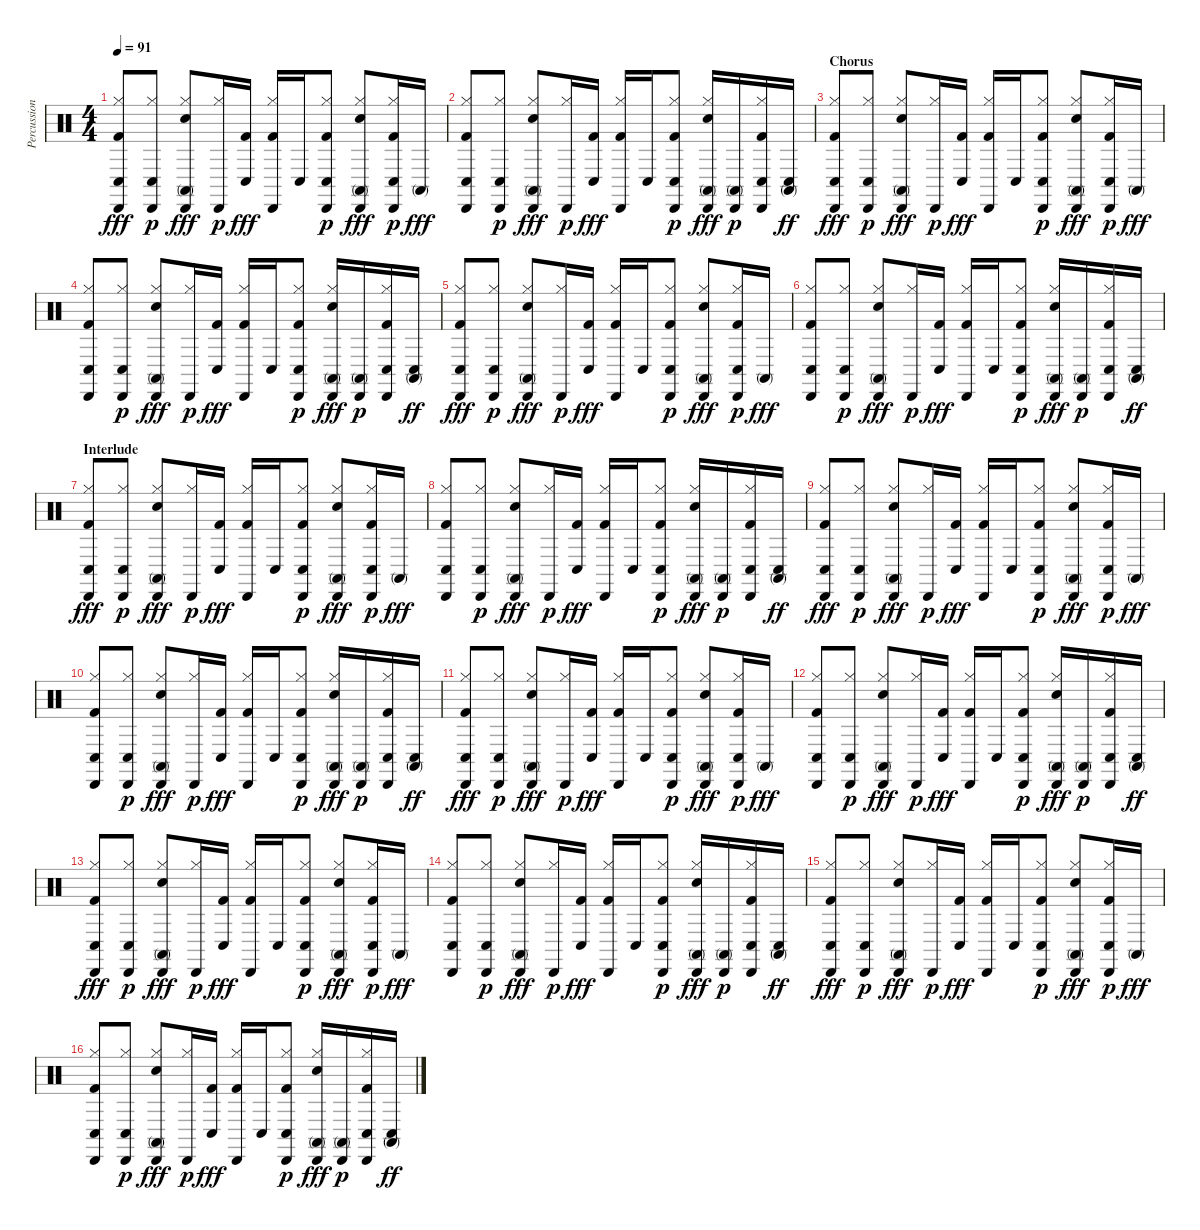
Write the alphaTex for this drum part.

\track ("Percussion" "Percussion") {instrument percussion}
\staff {score}
\articulation defaults
\ts (4 4)
\tempo 91
\clef neutral
\ks c
("Kick (hit) 2" "Hi-Hat (closed)" "Conga low (hit)" "Cabasa (hit)").8{dy fff} ("Hi-Hat (closed)" "Conga low (hit)" "Cabasa (hit)").8{dy p} ("Snare (hit) 2" "Hi-Hat (closed)" "Conga high (mute)" "Cabasa (hit)").8{dy fff} ("Hi-Hat (closed)" "Cabasa (hit)").16{dy p} ("Kick (hit) 2" "Conga low (hit)").16{dy fff} ("Kick (hit) 2" "Hi-Hat (closed)" "Cabasa (hit)").16 "Conga low (hit)".16 ("Kick (hit) 2" "Hi-Hat (closed)" "Conga low (hit)" "Cabasa (hit)").8{dy p} ("Snare (hit) 2" "Hi-Hat (closed)" "Conga high (mute)" "Cabasa (hit)").8{dy fff} ("Kick (hit) 2" "Hi-Hat (closed)" "Conga low (hit)" "Cabasa (hit)").16{dy p} "Conga high (mute)".16{dy fff} |
("Kick (hit) 2" "Hi-Hat (closed)" "Conga low (hit)" "Cabasa (hit)").8 ("Hi-Hat (closed)" "Conga low (hit)" "Cabasa (hit)").8{dy p} ("Snare (hit) 2" "Hi-Hat (closed)" "Conga high (mute)" "Cabasa (hit)").8{dy fff} ("Hi-Hat (closed)" "Cabasa (hit)").16{dy p} ("Kick (hit) 2" "Conga low (hit)").16{dy fff} ("Kick (hit) 2" "Hi-Hat (closed)" "Cabasa (hit)").16 "Conga low (hit)".16 ("Kick (hit) 2" "Hi-Hat (closed)" "Conga low (hit)" "Cabasa (hit)").8{dy p} ("Snare (hit) 2" "Hi-Hat (closed)" "Conga high (mute)" "Cabasa (hit)").16{dy fff} ("Conga high (mute)" "Cabasa (hit)").16{dy p} ("Kick (hit) 2" "Hi-Hat (closed)" "Conga low (hit)" "Cabasa (hit)").16 ("Conga high (mute)" "Conga low (hit)").16{dy ff} |
\section ("" "Chorus")
("Kick (hit) 2" "Hi-Hat (closed)" "Conga low (hit)" "Cabasa (hit)").8{dy fff} ("Hi-Hat (closed)" "Conga low (hit)" "Cabasa (hit)").8{dy p} ("Snare (hit) 2" "Hi-Hat (closed)" "Conga high (mute)" "Cabasa (hit)").8{dy fff} ("Hi-Hat (closed)" "Cabasa (hit)").16{dy p} ("Kick (hit) 2" "Conga low (hit)").16{dy fff} ("Kick (hit) 2" "Hi-Hat (closed)" "Cabasa (hit)").16 "Conga low (hit)".16 ("Kick (hit) 2" "Hi-Hat (closed)" "Conga low (hit)" "Cabasa (hit)").8{dy p} ("Snare (hit) 2" "Hi-Hat (closed)" "Conga high (mute)" "Cabasa (hit)").8{dy fff} ("Kick (hit) 2" "Hi-Hat (closed)" "Conga low (hit)" "Cabasa (hit)").16{dy p} "Conga high (mute)".16{dy fff} |
("Kick (hit) 2" "Hi-Hat (closed)" "Conga low (hit)" "Cabasa (hit)").8 ("Hi-Hat (closed)" "Conga low (hit)" "Cabasa (hit)").8{dy p} ("Snare (hit) 2" "Hi-Hat (closed)" "Conga high (mute)" "Cabasa (hit)").8{dy fff} ("Hi-Hat (closed)" "Cabasa (hit)").16{dy p} ("Kick (hit) 2" "Conga low (hit)").16{dy fff} ("Kick (hit) 2" "Hi-Hat (closed)" "Cabasa (hit)").16 "Conga low (hit)".16 ("Kick (hit) 2" "Hi-Hat (closed)" "Conga low (hit)" "Cabasa (hit)").8{dy p} ("Snare (hit) 2" "Hi-Hat (closed)" "Conga high (mute)" "Cabasa (hit)").16{dy fff} ("Conga high (mute)" "Cabasa (hit)").16{dy p} ("Kick (hit) 2" "Hi-Hat (closed)" "Conga low (hit)" "Cabasa (hit)").16 ("Conga high (mute)" "Conga low (hit)").16{dy ff} |
("Kick (hit) 2" "Hi-Hat (closed)" "Conga low (hit)" "Cabasa (hit)").8{dy fff} ("Hi-Hat (closed)" "Conga low (hit)" "Cabasa (hit)").8{dy p} ("Snare (hit) 2" "Hi-Hat (closed)" "Conga high (mute)" "Cabasa (hit)").8{dy fff} ("Hi-Hat (closed)" "Cabasa (hit)").16{dy p} ("Kick (hit) 2" "Conga low (hit)").16{dy fff} ("Kick (hit) 2" "Hi-Hat (closed)" "Cabasa (hit)").16 "Conga low (hit)".16 ("Kick (hit) 2" "Hi-Hat (closed)" "Conga low (hit)" "Cabasa (hit)").8{dy p} ("Snare (hit) 2" "Hi-Hat (closed)" "Conga high (mute)" "Cabasa (hit)").8{dy fff} ("Kick (hit) 2" "Hi-Hat (closed)" "Conga low (hit)" "Cabasa (hit)").16{dy p} "Conga high (mute)".16{dy fff} |
("Kick (hit) 2" "Hi-Hat (closed)" "Conga low (hit)" "Cabasa (hit)").8 ("Hi-Hat (closed)" "Conga low (hit)" "Cabasa (hit)").8{dy p} ("Snare (hit) 2" "Hi-Hat (closed)" "Conga high (mute)" "Cabasa (hit)").8{dy fff} ("Hi-Hat (closed)" "Cabasa (hit)").16{dy p} ("Kick (hit) 2" "Conga low (hit)").16{dy fff} ("Kick (hit) 2" "Hi-Hat (closed)" "Cabasa (hit)").16 "Conga low (hit)".16 ("Kick (hit) 2" "Hi-Hat (closed)" "Conga low (hit)" "Cabasa (hit)").8{dy p} ("Snare (hit) 2" "Hi-Hat (closed)" "Conga high (mute)" "Cabasa (hit)").16{dy fff} ("Conga high (mute)" "Cabasa (hit)").16{dy p} ("Kick (hit) 2" "Hi-Hat (closed)" "Conga low (hit)" "Cabasa (hit)").16 ("Conga high (mute)" "Conga low (hit)").16{dy ff} |
\section ("" "Interlude")
("Kick (hit) 2" "Hi-Hat (closed)" "Conga low (hit)" "Cabasa (hit)").8{dy fff} ("Hi-Hat (closed)" "Conga low (hit)" "Cabasa (hit)").8{dy p} ("Snare (hit) 2" "Hi-Hat (closed)" "Conga high (mute)" "Cabasa (hit)").8{dy fff} ("Hi-Hat (closed)" "Cabasa (hit)").16{dy p} ("Kick (hit) 2" "Conga low (hit)").16{dy fff} ("Kick (hit) 2" "Hi-Hat (closed)" "Cabasa (hit)").16 "Conga low (hit)".16 ("Kick (hit) 2" "Hi-Hat (closed)" "Conga low (hit)" "Cabasa (hit)").8{dy p} ("Snare (hit) 2" "Hi-Hat (closed)" "Conga high (mute)" "Cabasa (hit)").8{dy fff} ("Kick (hit) 2" "Hi-Hat (closed)" "Conga low (hit)" "Cabasa (hit)").16{dy p} "Conga high (mute)".16{dy fff} |
("Kick (hit) 2" "Hi-Hat (closed)" "Conga low (hit)" "Cabasa (hit)").8 ("Hi-Hat (closed)" "Conga low (hit)" "Cabasa (hit)").8{dy p} ("Snare (hit) 2" "Hi-Hat (closed)" "Conga high (mute)" "Cabasa (hit)").8{dy fff} ("Hi-Hat (closed)" "Cabasa (hit)").16{dy p} ("Kick (hit) 2" "Conga low (hit)").16{dy fff} ("Kick (hit) 2" "Hi-Hat (closed)" "Cabasa (hit)").16 "Conga low (hit)".16 ("Kick (hit) 2" "Hi-Hat (closed)" "Conga low (hit)" "Cabasa (hit)").8{dy p} ("Snare (hit) 2" "Hi-Hat (closed)" "Conga high (mute)" "Cabasa (hit)").16{dy fff} ("Conga high (mute)" "Cabasa (hit)").16{dy p} ("Kick (hit) 2" "Hi-Hat (closed)" "Conga low (hit)" "Cabasa (hit)").16 ("Conga high (mute)" "Conga low (hit)").16{dy ff} |
("Kick (hit) 2" "Hi-Hat (closed)" "Conga low (hit)" "Cabasa (hit)").8{dy fff} ("Hi-Hat (closed)" "Conga low (hit)" "Cabasa (hit)").8{dy p} ("Snare (hit) 2" "Hi-Hat (closed)" "Conga high (mute)" "Cabasa (hit)").8{dy fff} ("Hi-Hat (closed)" "Cabasa (hit)").16{dy p} ("Kick (hit) 2" "Conga low (hit)").16{dy fff} ("Kick (hit) 2" "Hi-Hat (closed)" "Cabasa (hit)").16 "Conga low (hit)".16 ("Kick (hit) 2" "Hi-Hat (closed)" "Conga low (hit)" "Cabasa (hit)").8{dy p} ("Snare (hit) 2" "Hi-Hat (closed)" "Conga high (mute)" "Cabasa (hit)").8{dy fff} ("Kick (hit) 2" "Hi-Hat (closed)" "Conga low (hit)" "Cabasa (hit)").16{dy p} "Conga high (mute)".16{dy fff} |
("Kick (hit) 2" "Hi-Hat (closed)" "Conga low (hit)" "Cabasa (hit)").8 ("Hi-Hat (closed)" "Conga low (hit)" "Cabasa (hit)").8{dy p} ("Snare (hit) 2" "Hi-Hat (closed)" "Conga high (mute)" "Cabasa (hit)").8{dy fff} ("Hi-Hat (closed)" "Cabasa (hit)").16{dy p} ("Kick (hit) 2" "Conga low (hit)").16{dy fff} ("Kick (hit) 2" "Hi-Hat (closed)" "Cabasa (hit)").16 "Conga low (hit)".16 ("Kick (hit) 2" "Hi-Hat (closed)" "Conga low (hit)" "Cabasa (hit)").8{dy p} ("Snare (hit) 2" "Hi-Hat (closed)" "Conga high (mute)" "Cabasa (hit)").16{dy fff} ("Conga high (mute)" "Cabasa (hit)").16{dy p} ("Kick (hit) 2" "Hi-Hat (closed)" "Conga low (hit)" "Cabasa (hit)").16 ("Conga high (mute)" "Conga low (hit)").16{dy ff} |
("Kick (hit) 2" "Hi-Hat (closed)" "Conga low (hit)" "Cabasa (hit)").8{dy fff} ("Hi-Hat (closed)" "Conga low (hit)" "Cabasa (hit)").8{dy p} ("Snare (hit) 2" "Hi-Hat (closed)" "Conga high (mute)" "Cabasa (hit)").8{dy fff} ("Hi-Hat (closed)" "Cabasa (hit)").16{dy p} ("Kick (hit) 2" "Conga low (hit)").16{dy fff} ("Kick (hit) 2" "Hi-Hat (closed)" "Cabasa (hit)").16 "Conga low (hit)".16 ("Kick (hit) 2" "Hi-Hat (closed)" "Conga low (hit)" "Cabasa (hit)").8{dy p} ("Snare (hit) 2" "Hi-Hat (closed)" "Conga high (mute)" "Cabasa (hit)").8{dy fff} ("Kick (hit) 2" "Hi-Hat (closed)" "Conga low (hit)" "Cabasa (hit)").16{dy p} "Conga high (mute)".16{dy fff} |
("Kick (hit) 2" "Hi-Hat (closed)" "Conga low (hit)" "Cabasa (hit)").8 ("Hi-Hat (closed)" "Conga low (hit)" "Cabasa (hit)").8{dy p} ("Snare (hit) 2" "Hi-Hat (closed)" "Conga high (mute)" "Cabasa (hit)").8{dy fff} ("Hi-Hat (closed)" "Cabasa (hit)").16{dy p} ("Kick (hit) 2" "Conga low (hit)").16{dy fff} ("Kick (hit) 2" "Hi-Hat (closed)" "Cabasa (hit)").16 "Conga low (hit)".16 ("Kick (hit) 2" "Hi-Hat (closed)" "Conga low (hit)" "Cabasa (hit)").8{dy p} ("Snare (hit) 2" "Hi-Hat (closed)" "Conga high (mute)" "Cabasa (hit)").16{dy fff} ("Conga high (mute)" "Cabasa (hit)").16{dy p} ("Kick (hit) 2" "Hi-Hat (closed)" "Conga low (hit)" "Cabasa (hit)").16 ("Conga high (mute)" "Conga low (hit)").16{dy ff} |
("Kick (hit) 2" "Hi-Hat (closed)" "Conga low (hit)" "Cabasa (hit)").8{dy fff} ("Hi-Hat (closed)" "Conga low (hit)" "Cabasa (hit)").8{dy p} ("Snare (hit) 2" "Hi-Hat (closed)" "Conga high (mute)" "Cabasa (hit)").8{dy fff} ("Hi-Hat (closed)" "Cabasa (hit)").16{dy p} ("Kick (hit) 2" "Conga low (hit)").16{dy fff} ("Kick (hit) 2" "Hi-Hat (closed)" "Cabasa (hit)").16 "Conga low (hit)".16 ("Kick (hit) 2" "Hi-Hat (closed)" "Conga low (hit)" "Cabasa (hit)").8{dy p} ("Snare (hit) 2" "Hi-Hat (closed)" "Conga high (mute)" "Cabasa (hit)").8{dy fff} ("Kick (hit) 2" "Hi-Hat (closed)" "Conga low (hit)" "Cabasa (hit)").16{dy p} "Conga high (mute)".16{dy fff} |
("Kick (hit) 2" "Hi-Hat (closed)" "Conga low (hit)" "Cabasa (hit)").8 ("Hi-Hat (closed)" "Conga low (hit)" "Cabasa (hit)").8{dy p} ("Snare (hit) 2" "Hi-Hat (closed)" "Conga high (mute)" "Cabasa (hit)").8{dy fff} ("Hi-Hat (closed)" "Cabasa (hit)").16{dy p} ("Kick (hit) 2" "Conga low (hit)").16{dy fff} ("Kick (hit) 2" "Hi-Hat (closed)" "Cabasa (hit)").16 "Conga low (hit)".16 ("Kick (hit) 2" "Hi-Hat (closed)" "Conga low (hit)" "Cabasa (hit)").8{dy p} ("Snare (hit) 2" "Hi-Hat (closed)" "Conga high (mute)" "Cabasa (hit)").16{dy fff} ("Conga high (mute)" "Cabasa (hit)").16{dy p} ("Kick (hit) 2" "Hi-Hat (closed)" "Conga low (hit)" "Cabasa (hit)").16 ("Conga high (mute)" "Conga low (hit)").16{dy ff} |
("Kick (hit) 2" "Hi-Hat (closed)" "Conga low (hit)" "Cabasa (hit)").8{dy fff} ("Hi-Hat (closed)" "Conga low (hit)" "Cabasa (hit)").8{dy p} ("Snare (hit) 2" "Hi-Hat (closed)" "Conga high (mute)" "Cabasa (hit)").8{dy fff} ("Hi-Hat (closed)" "Cabasa (hit)").16{dy p} ("Kick (hit) 2" "Conga low (hit)").16{dy fff} ("Kick (hit) 2" "Hi-Hat (closed)" "Cabasa (hit)").16 "Conga low (hit)".16 ("Kick (hit) 2" "Hi-Hat (closed)" "Conga low (hit)" "Cabasa (hit)").8{dy p} ("Snare (hit) 2" "Hi-Hat (closed)" "Conga high (mute)" "Cabasa (hit)").8{dy fff} ("Kick (hit) 2" "Hi-Hat (closed)" "Conga low (hit)" "Cabasa (hit)").16{dy p} "Conga high (mute)".16{dy fff} |
("Kick (hit) 2" "Hi-Hat (closed)" "Conga low (hit)" "Cabasa (hit)").8 ("Hi-Hat (closed)" "Conga low (hit)" "Cabasa (hit)").8{dy p} ("Snare (hit) 2" "Hi-Hat (closed)" "Conga high (mute)" "Cabasa (hit)").8{dy fff} ("Hi-Hat (closed)" "Cabasa (hit)").16{dy p} ("Kick (hit) 2" "Conga low (hit)").16{dy fff} ("Kick (hit) 2" "Hi-Hat (closed)" "Cabasa (hit)").16 "Conga low (hit)".16 ("Kick (hit) 2" "Hi-Hat (closed)" "Conga low (hit)" "Cabasa (hit)").8{dy p} ("Snare (hit) 2" "Hi-Hat (closed)" "Conga high (mute)" "Cabasa (hit)").16{dy fff} ("Conga high (mute)" "Cabasa (hit)").16{dy p} ("Kick (hit) 2" "Hi-Hat (closed)" "Conga low (hit)" "Cabasa (hit)").16 ("Conga high (mute)" "Conga low (hit)").16{dy ff}
